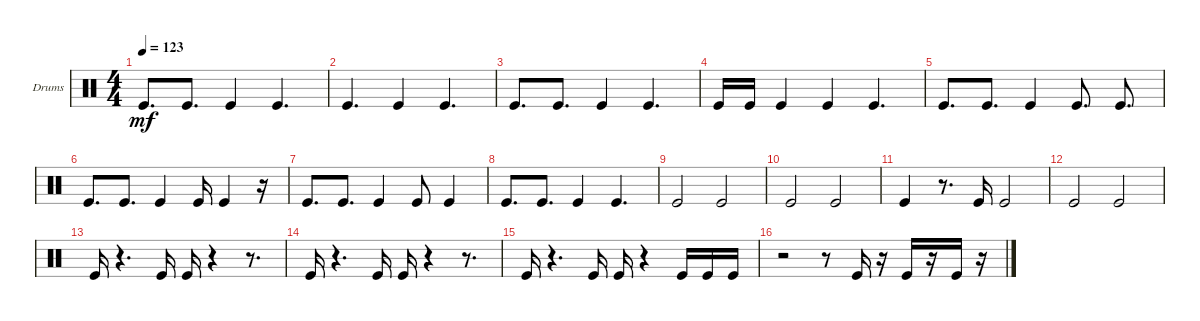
\bracketExtendMode groupsimilarinstruments
\firstSystemTrackNameOrientation horizontal
\otherSystemsTrackNameOrientation horizontal
\track ("Bass Drum" "Drums") {instrument percussion}
\staff {score}
\articulation defaults
\ts (4 4)
\tempo 123
\clef neutral
\ks c "Kick (hit)".8{d dy mf} "Kick (hit)".8{d} "Kick (hit)".4 "Kick (hit)".4{d}
|
"Kick (hit)".4{d} "Kick (hit)".4 "Kick (hit)".4{d} |
"Kick (hit)".8{d} "Kick (hit)".8{d} "Kick (hit)".4 "Kick (hit)".4{d} |
"Kick (hit)".16 "Kick (hit)".16 "Kick (hit)".4 "Kick (hit)".4 "Kick (hit)".4{d} |
"Kick (hit)".8{d} "Kick (hit)".8{d} "Kick (hit)".4 "Kick (hit)".8{d} "Kick (hit)".8{d} |
"Kick (hit)".8{d} "Kick (hit)".8{d} "Kick (hit)".4 "Kick (hit)".16 "Kick (hit)".4 r.16 |
"Kick (hit)".8{d} "Kick (hit)".8{d} "Kick (hit)".4 "Kick (hit)".8 "Kick (hit)".4 |
"Kick (hit)".8{d} "Kick (hit)".8{d} "Kick (hit)".4 "Kick (hit)".4{d} |
"Kick (hit)".2 "Kick (hit)".2 |
"Kick (hit)".2 "Kick (hit)".2 |
"Kick (hit)".4 r.8{d} "Kick (hit)".16 "Kick (hit)".2 |
"Kick (hit)".2 "Kick (hit)".2 |
"Kick (hit)".16 r.4{d} "Kick (hit)".16 "Kick (hit)".16 r.4 r.8{d} |
"Kick (hit)".16 r.4{d} "Kick (hit)".16 "Kick (hit)".16 r.4 r.8{d} |
"Kick (hit)".16 r.4{d} "Kick (hit)".16 "Kick (hit)".16 r.4 "Kick (hit)".16 "Kick (hit)".16 "Kick (hit)".16 |
r.2 r.8 "Kick (hit)".16 r.16 "Kick (hit)".16 r.16 "Kick (hit)".16 r.16
